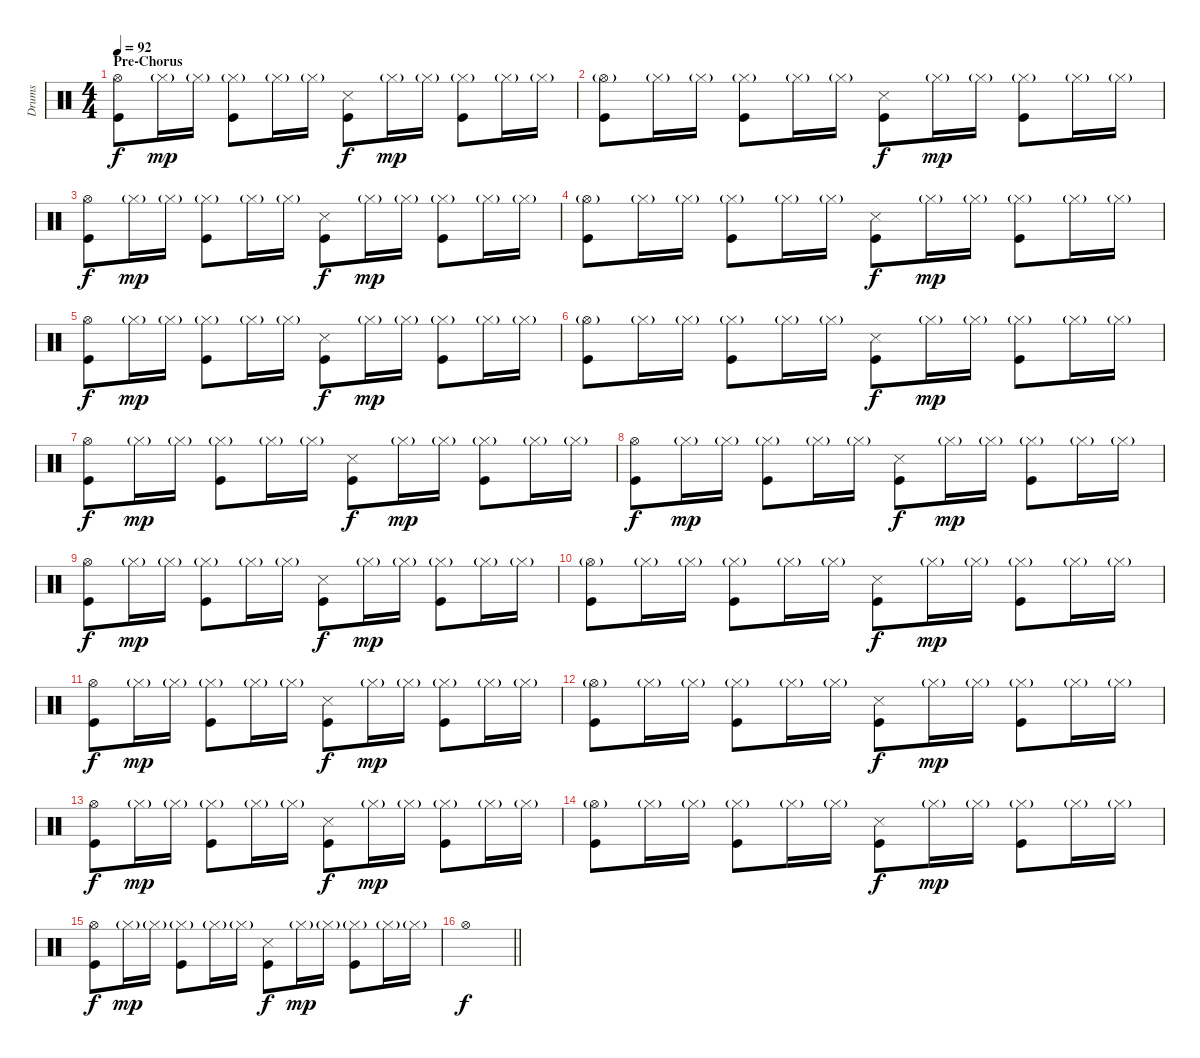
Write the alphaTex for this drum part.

\track ("Drums" "Drums") {instrument percussion}
\staff {score}
\articulation defaults
\ts (4 4)
\section ("" "Pre-Chorus")
\tempo 92
\clef neutral
\ks c
("Hi-Hat (open)" "Kick (hit)").8{dy f} "Hi-Hat (closed)"{g}.16{dy mp} "Hi-Hat (closed)"{g}.16 ("Hi-Hat (closed)"{g} "Kick (hit)").8 "Hi-Hat (closed)"{g}.16 "Hi-Hat (closed)"{g}.16 ("Metronome (hit)" "Kick (hit)").8{dy f} "Hi-Hat (closed)"{g}.16{dy mp} "Hi-Hat (closed)"{g}.16 ("Hi-Hat (closed)"{g} "Kick (hit)").8 "Hi-Hat (closed)"{g}.16 "Hi-Hat (closed)"{g}.16 |
("Hi-Hat (open)"{g} "Kick (hit)").8 "Hi-Hat (closed)"{g}.16 "Hi-Hat (closed)"{g}.16 ("Hi-Hat (closed)"{g} "Kick (hit)").8 "Hi-Hat (closed)"{g}.16 "Hi-Hat (closed)"{g}.16 ("Metronome (hit)" "Kick (hit)").8{dy f} "Hi-Hat (closed)"{g}.16{dy mp} "Hi-Hat (closed)"{g}.16 ("Hi-Hat (closed)"{g} "Kick (hit)").8 "Hi-Hat (closed)"{g}.16 "Hi-Hat (closed)"{g}.16 |
("Hi-Hat (open)" "Kick (hit)").8{dy f} "Hi-Hat (closed)"{g}.16{dy mp} "Hi-Hat (closed)"{g}.16 ("Hi-Hat (closed)"{g} "Kick (hit)").8 "Hi-Hat (closed)"{g}.16 "Hi-Hat (closed)"{g}.16 ("Metronome (hit)" "Kick (hit)").8{dy f} "Hi-Hat (closed)"{g}.16{dy mp} "Hi-Hat (closed)"{g}.16 ("Hi-Hat (closed)"{g} "Kick (hit)").8 "Hi-Hat (closed)"{g}.16 "Hi-Hat (closed)"{g}.16 |
("Hi-Hat (open)"{g} "Kick (hit)").8 "Hi-Hat (closed)"{g}.16 "Hi-Hat (closed)"{g}.16 ("Hi-Hat (closed)"{g} "Kick (hit)").8 "Hi-Hat (closed)"{g}.16 "Hi-Hat (closed)"{g}.16 ("Metronome (hit)" "Kick (hit)").8{dy f} "Hi-Hat (closed)"{g}.16{dy mp} "Hi-Hat (closed)"{g}.16 ("Hi-Hat (closed)"{g} "Kick (hit)").8 "Hi-Hat (closed)"{g}.16 "Hi-Hat (closed)"{g}.16 |
("Hi-Hat (open)" "Kick (hit)").8{dy f} "Hi-Hat (closed)"{g}.16{dy mp} "Hi-Hat (closed)"{g}.16 ("Hi-Hat (closed)"{g} "Kick (hit)").8 "Hi-Hat (closed)"{g}.16 "Hi-Hat (closed)"{g}.16 ("Metronome (hit)" "Kick (hit)").8{dy f} "Hi-Hat (closed)"{g}.16{dy mp} "Hi-Hat (closed)"{g}.16 ("Hi-Hat (closed)"{g} "Kick (hit)").8 "Hi-Hat (closed)"{g}.16 "Hi-Hat (closed)"{g}.16 |
("Hi-Hat (open)"{g} "Kick (hit)").8 "Hi-Hat (closed)"{g}.16 "Hi-Hat (closed)"{g}.16 ("Hi-Hat (closed)"{g} "Kick (hit)").8 "Hi-Hat (closed)"{g}.16 "Hi-Hat (closed)"{g}.16 ("Metronome (hit)" "Kick (hit)").8{dy f} "Hi-Hat (closed)"{g}.16{dy mp} "Hi-Hat (closed)"{g}.16 ("Hi-Hat (closed)"{g} "Kick (hit)").8 "Hi-Hat (closed)"{g}.16 "Hi-Hat (closed)"{g}.16 |
("Hi-Hat (open)" "Kick (hit)").8{dy f} "Hi-Hat (closed)"{g}.16{dy mp} "Hi-Hat (closed)"{g}.16 ("Hi-Hat (closed)"{g} "Kick (hit)").8 "Hi-Hat (closed)"{g}.16 "Hi-Hat (closed)"{g}.16 ("Metronome (hit)" "Kick (hit)").8{dy f} "Hi-Hat (closed)"{g}.16{dy mp} "Hi-Hat (closed)"{g}.16 ("Hi-Hat (closed)"{g} "Kick (hit)").8 "Hi-Hat (closed)"{g}.16 "Hi-Hat (closed)"{g}.16 |
("Hi-Hat (open)" "Kick (hit)").8{dy f} "Hi-Hat (closed)"{g}.16{dy mp} "Hi-Hat (closed)"{g}.16 ("Hi-Hat (closed)"{g} "Kick (hit)").8 "Hi-Hat (closed)"{g}.16 "Hi-Hat (closed)"{g}.16 ("Metronome (hit)" "Kick (hit)").8{dy f} "Hi-Hat (closed)"{g}.16{dy mp} "Hi-Hat (closed)"{g}.16 ("Hi-Hat (closed)"{g} "Kick (hit)").8 "Hi-Hat (closed)"{g}.16 "Hi-Hat (closed)"{g}.16 |
("Hi-Hat (open)" "Kick (hit)").8{dy f} "Hi-Hat (closed)"{g}.16{dy mp} "Hi-Hat (closed)"{g}.16 ("Hi-Hat (closed)"{g} "Kick (hit)").8 "Hi-Hat (closed)"{g}.16 "Hi-Hat (closed)"{g}.16 ("Metronome (hit)" "Kick (hit)").8{dy f} "Hi-Hat (closed)"{g}.16{dy mp} "Hi-Hat (closed)"{g}.16 ("Hi-Hat (closed)"{g} "Kick (hit)").8 "Hi-Hat (closed)"{g}.16 "Hi-Hat (closed)"{g}.16 |
("Hi-Hat (open)"{g} "Kick (hit)").8 "Hi-Hat (closed)"{g}.16 "Hi-Hat (closed)"{g}.16 ("Hi-Hat (closed)"{g} "Kick (hit)").8 "Hi-Hat (closed)"{g}.16 "Hi-Hat (closed)"{g}.16 ("Metronome (hit)" "Kick (hit)").8{dy f} "Hi-Hat (closed)"{g}.16{dy mp} "Hi-Hat (closed)"{g}.16 ("Hi-Hat (closed)"{g} "Kick (hit)").8 "Hi-Hat (closed)"{g}.16 "Hi-Hat (closed)"{g}.16 |
("Hi-Hat (open)" "Kick (hit)").8{dy f} "Hi-Hat (closed)"{g}.16{dy mp} "Hi-Hat (closed)"{g}.16 ("Hi-Hat (closed)"{g} "Kick (hit)").8 "Hi-Hat (closed)"{g}.16 "Hi-Hat (closed)"{g}.16 ("Metronome (hit)" "Kick (hit)").8{dy f} "Hi-Hat (closed)"{g}.16{dy mp} "Hi-Hat (closed)"{g}.16 ("Hi-Hat (closed)"{g} "Kick (hit)").8 "Hi-Hat (closed)"{g}.16 "Hi-Hat (closed)"{g}.16 |
("Hi-Hat (open)"{g} "Kick (hit)").8 "Hi-Hat (closed)"{g}.16 "Hi-Hat (closed)"{g}.16 ("Hi-Hat (closed)"{g} "Kick (hit)").8 "Hi-Hat (closed)"{g}.16 "Hi-Hat (closed)"{g}.16 ("Metronome (hit)" "Kick (hit)").8{dy f} "Hi-Hat (closed)"{g}.16{dy mp} "Hi-Hat (closed)"{g}.16 ("Hi-Hat (closed)"{g} "Kick (hit)").8 "Hi-Hat (closed)"{g}.16 "Hi-Hat (closed)"{g}.16 |
("Hi-Hat (open)" "Kick (hit)").8{dy f} "Hi-Hat (closed)"{g}.16{dy mp} "Hi-Hat (closed)"{g}.16 ("Hi-Hat (closed)"{g} "Kick (hit)").8 "Hi-Hat (closed)"{g}.16 "Hi-Hat (closed)"{g}.16 ("Metronome (hit)" "Kick (hit)").8{dy f} "Hi-Hat (closed)"{g}.16{dy mp} "Hi-Hat (closed)"{g}.16 ("Hi-Hat (closed)"{g} "Kick (hit)").8 "Hi-Hat (closed)"{g}.16 "Hi-Hat (closed)"{g}.16 |
("Hi-Hat (open)"{g} "Kick (hit)").8 "Hi-Hat (closed)"{g}.16 "Hi-Hat (closed)"{g}.16 ("Hi-Hat (closed)"{g} "Kick (hit)").8 "Hi-Hat (closed)"{g}.16 "Hi-Hat (closed)"{g}.16 ("Metronome (hit)" "Kick (hit)").8{dy f} "Hi-Hat (closed)"{g}.16{dy mp} "Hi-Hat (closed)"{g}.16 ("Hi-Hat (closed)"{g} "Kick (hit)").8 "Hi-Hat (closed)"{g}.16 "Hi-Hat (closed)"{g}.16 |
("Hi-Hat (open)" "Kick (hit)").8{dy f} "Hi-Hat (closed)"{g}.16{dy mp} "Hi-Hat (closed)"{g}.16 ("Hi-Hat (closed)"{g} "Kick (hit)").8 "Hi-Hat (closed)"{g}.16 "Hi-Hat (closed)"{g}.16 ("Metronome (hit)" "Kick (hit)").8{dy f} "Hi-Hat (closed)"{g}.16{dy mp} "Hi-Hat (closed)"{g}.16 ("Hi-Hat (closed)"{g} "Kick (hit)").8 "Hi-Hat (closed)"{g}.16 "Hi-Hat (closed)"{g}.16 |
\barLineRight lightlight "Hi-Hat (open)".1{dy f}
